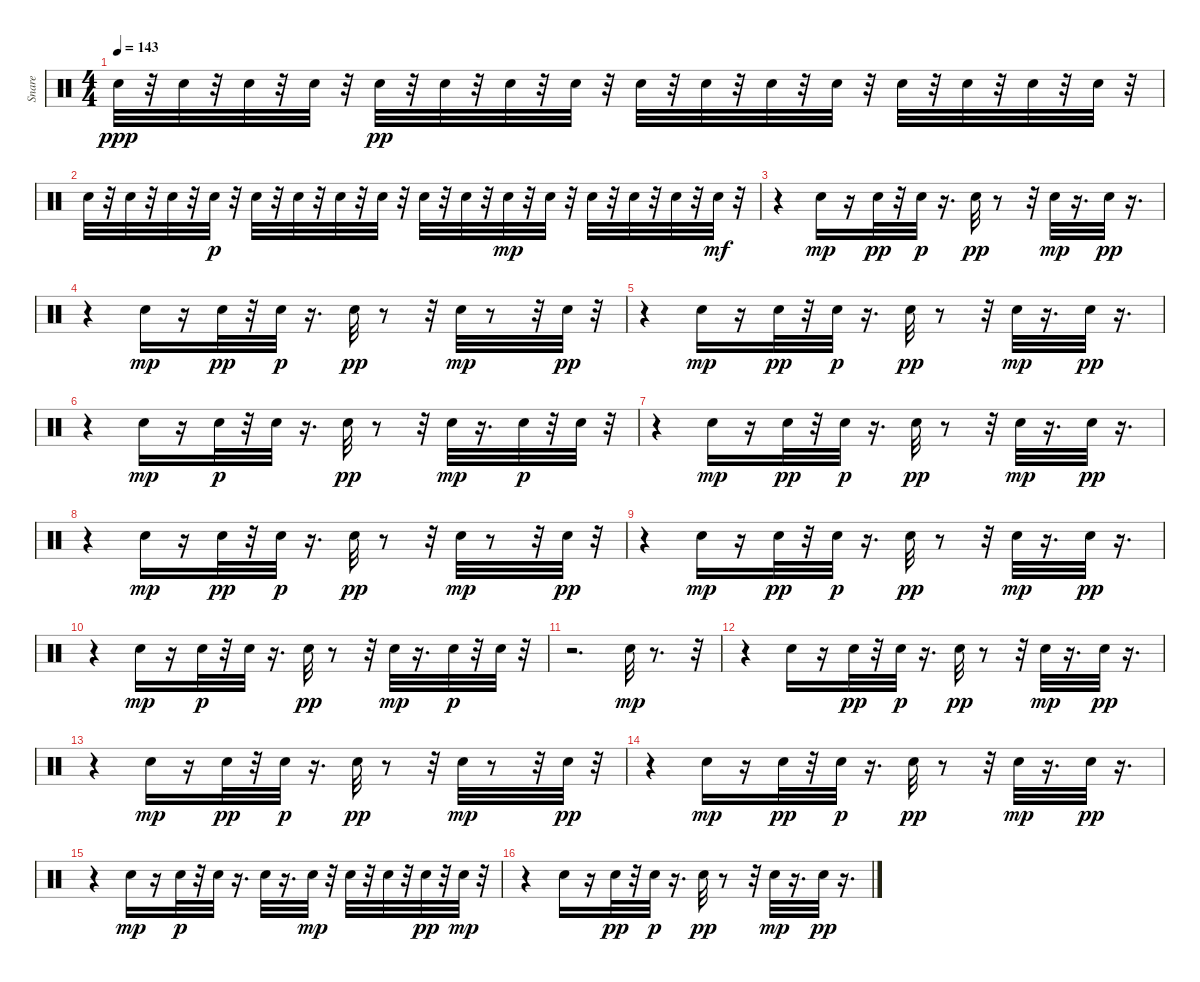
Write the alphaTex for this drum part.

\track ("Snare    " "Snare    ") {instrument percussion}
\staff {score}
\articulation defaults
\ts (4 4)
\tempo 143
\clef neutral
\ks c "Electric Snare (hit)".32{dy ppp}
r.32 "Electric Snare (hit)".32 r.32 "Electric Snare (hit)".32 r.32 "Electric Snare (hit)".32 r.32 "Electric Snare (hit)".32{dy pp} r.32 "Electric Snare (hit)".32 r.32 "Electric Snare (hit)".32 r.32 "Electric Snare (hit)".32 r.32 "Electric Snare (hit)".32 r.32 "Electric Snare (hit)".32 r.32 "Electric Snare (hit)".32 r.32 "Electric Snare (hit)".32 r.32 "Electric Snare (hit)".32 r.32 "Electric Snare (hit)".32 r.32 "Electric Snare (hit)".32 r.32 "Electric Snare (hit)".32 r.32 |
"Electric Snare (hit)".32 r.32 "Electric Snare (hit)".32 r.32 "Electric Snare (hit)".32 r.32 "Electric Snare (hit)".32{dy p} r.32 "Electric Snare (hit)".32 r.32 "Electric Snare (hit)".32 r.32 "Electric Snare (hit)".32 r.32 "Electric Snare (hit)".32 r.32 "Electric Snare (hit)".32 r.32 "Electric Snare (hit)".32 r.32 "Electric Snare (hit)".32{dy mp} r.32 "Electric Snare (hit)".32 r.32 "Electric Snare (hit)".32 r.32 "Electric Snare (hit)".32 r.32 "Electric Snare (hit)".32 r.32 "Electric Snare (hit)".32{dy mf} r.32 |
r.4 "Electric Snare (hit)".16{dy mp} r.16 "Electric Snare (hit)".32{dy pp} r.32 "Snare (hit) 2".32{dy p} r.16{d} "Electric Snare (hit)".32{dy pp} r.8 r.32 "Electric Snare (hit)".32{dy mp} r.16{d} "Electric Snare (hit)".32{dy pp} r.16{d} |
r.4 "Electric Snare (hit)".16{dy mp} r.16 "Electric Snare (hit)".32{dy pp} r.32 "Snare (hit) 2".32{dy p} r.16{d} "Electric Snare (hit)".32{dy pp} r.8 r.32 "Electric Snare (hit)".32{dy mp} r.8 r.32 "Electric Snare (hit)".32{dy pp} r.32 |
r.4 "Electric Snare (hit)".16{dy mp} r.16 "Electric Snare (hit)".32{dy pp} r.32 "Snare (hit) 2".32{dy p} r.16{d} "Electric Snare (hit)".32{dy pp} r.8 r.32 "Electric Snare (hit)".32{dy mp} r.16{d} "Electric Snare (hit)".32{dy pp} r.16{d} |
r.4 "Electric Snare (hit)".16{dy mp} r.16 "Electric Snare (hit)".32{dy p} r.32 "Snare (hit) 2".32 r.16{d} "Electric Snare (hit)".32{dy pp} r.8 r.32 "Electric Snare (hit)".32{dy mp} r.16{d} "Snare (hit) 2".32{dy p} r.32 "Snare (hit) 2".32 r.32 |
r.4 "Electric Snare (hit)".16{dy mp} r.16 "Electric Snare (hit)".32{dy pp} r.32 "Snare (hit) 2".32{dy p} r.16{d} "Electric Snare (hit)".32{dy pp} r.8 r.32 "Electric Snare (hit)".32{dy mp} r.16{d} "Electric Snare (hit)".32{dy pp} r.16{d} |
r.4 "Electric Snare (hit)".16{dy mp} r.16 "Electric Snare (hit)".32{dy pp} r.32 "Snare (hit) 2".32{dy p} r.16{d} "Electric Snare (hit)".32{dy pp} r.8 r.32 "Electric Snare (hit)".32{dy mp} r.8 r.32 "Electric Snare (hit)".32{dy pp} r.32 |
r.4 "Electric Snare (hit)".16{dy mp} r.16 "Electric Snare (hit)".32{dy pp} r.32 "Snare (hit) 2".32{dy p} r.16{d} "Electric Snare (hit)".32{dy pp} r.8 r.32 "Electric Snare (hit)".32{dy mp} r.16{d} "Electric Snare (hit)".32{dy pp} r.16{d} |
r.4 "Electric Snare (hit)".16{dy mp} r.16 "Electric Snare (hit)".32{dy p} r.32 "Snare (hit) 2".32 r.16{d} "Electric Snare (hit)".32{dy pp} r.8 r.32 "Electric Snare (hit)".32{dy mp} r.16{d} "Snare (hit) 2".32{dy p} r.32 "Snare (hit) 2".32 r.32 |
r.2{d} "Electric Snare (hit)".32{dy mp} r.8{d} r.32 |
r.4 "Electric Snare (hit)".16 r.16 "Electric Snare (hit)".32{dy pp} r.32 "Snare (hit) 2".32{dy p} r.16{d} "Electric Snare (hit)".32{dy pp} r.8 r.32 "Electric Snare (hit)".32{dy mp} r.16{d} "Electric Snare (hit)".32{dy pp} r.16{d} |
r.4 "Electric Snare (hit)".16{dy mp} r.16 "Electric Snare (hit)".32{dy pp} r.32 "Snare (hit) 2".32{dy p} r.16{d} "Electric Snare (hit)".32{dy pp} r.8 r.32 "Electric Snare (hit)".32{dy mp} r.8 r.32 "Electric Snare (hit)".32{dy pp} r.32 |
r.4 "Electric Snare (hit)".16{dy mp} r.16 "Electric Snare (hit)".32{dy pp} r.32 "Snare (hit) 2".32{dy p} r.16{d} "Electric Snare (hit)".32{dy pp} r.8 r.32 "Electric Snare (hit)".32{dy mp} r.16{d} "Electric Snare (hit)".32{dy pp} r.16{d} |
r.4 "Electric Snare (hit)".16{dy mp} r.16 "Electric Snare (hit)".32{dy p} r.32 "Snare (hit) 2".32 r.16{d} "Snare (hit) 2".32 r.16{d} "Snare (hit) 2".32{dy mp} r.32 "Electric Snare (hit)".32 r.32 "Snare (hit) 2".32 r.32 "Snare (hit) 2".32{dy pp} r.32 "Snare (hit) 2".32{dy mp} r.32 |
r.4 "Electric Snare (hit)".16 r.16 "Electric Snare (hit)".32{dy pp} r.32 "Snare (hit) 2".32{dy p} r.16{d} "Electric Snare (hit)".32{dy pp} r.8 r.32 "Electric Snare (hit)".32{dy mp} r.16{d} "Electric Snare (hit)".32{dy pp} r.16{d}
